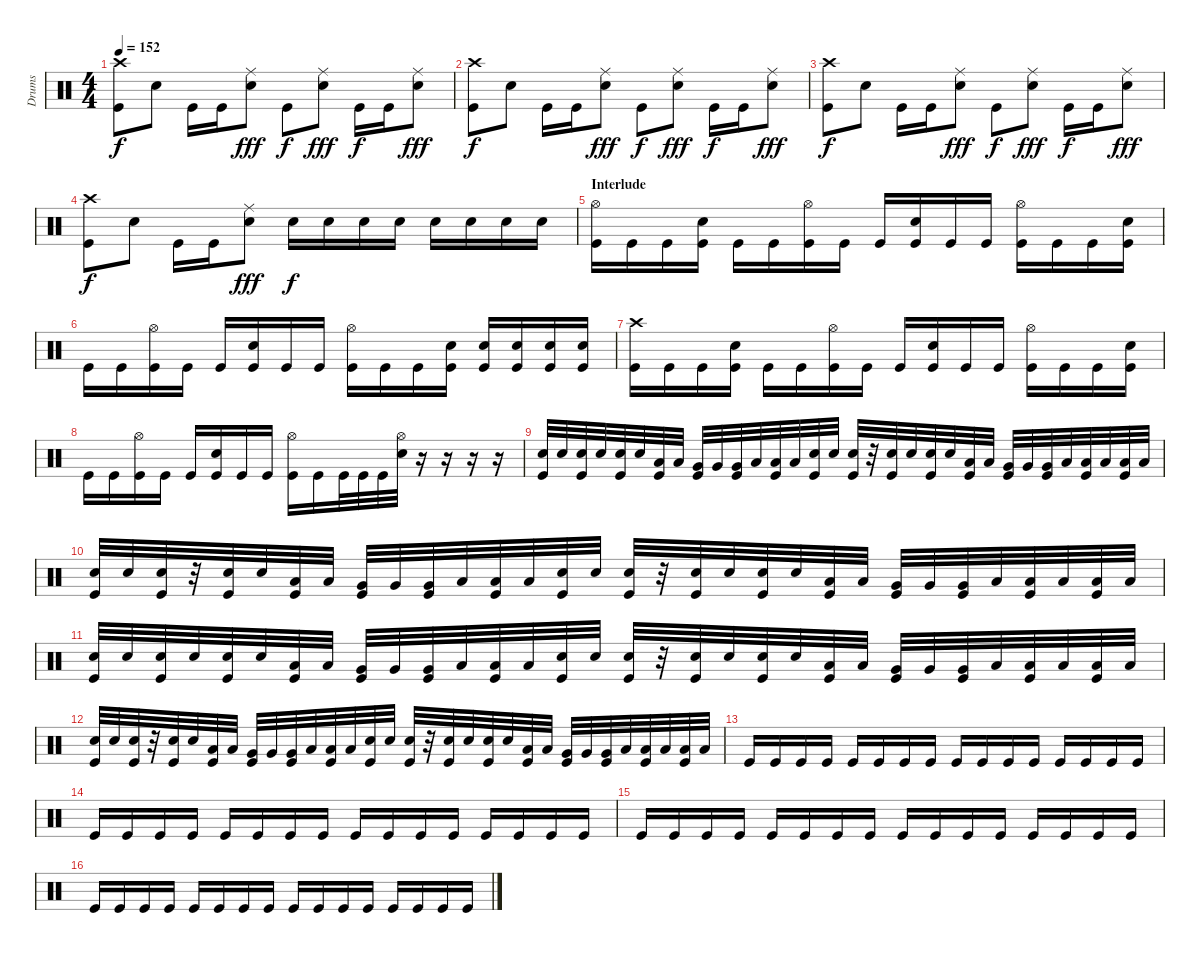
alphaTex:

\track ("Drums" "Drums") {instrument percussion}
\staff {score}
\articulation defaults
\ts (4 4)
\tempo 152
\clef neutral
\ks c
("Crash high (hit)" "Kick (hit)").8{dy f} "Snare (hit) 2".8 "Kick (hit)".16 "Kick (hit)".16 ("Ride (middle)" "Snare (hit) 2").8{dy fff} "Kick (hit)".8{dy f} ("Ride (middle)" "Snare (hit) 2").8{dy fff} "Kick (hit)".16{dy f} "Kick (hit)".16 ("Ride (middle)" "Snare (hit) 2").8{dy fff} |
("Crash high (hit)" "Kick (hit)").8{dy f} "Snare (hit) 2".8 "Kick (hit)".16 "Kick (hit)".16 ("Ride (middle)" "Snare (hit) 2").8{dy fff} "Kick (hit)".8{dy f} ("Ride (middle)" "Snare (hit) 2").8{dy fff} "Kick (hit)".16{dy f} "Kick (hit)".16 ("Ride (middle)" "Snare (hit) 2").8{dy fff} |
("Crash high (hit)" "Kick (hit)").8{dy f} "Snare (hit) 2".8 "Kick (hit)".16 "Kick (hit)".16 ("Ride (middle)" "Snare (hit) 2").8{dy fff} "Kick (hit)".8{dy f} ("Ride (middle)" "Snare (hit) 2").8{dy fff} "Kick (hit)".16{dy f} "Kick (hit)".16 ("Ride (middle)" "Snare (hit) 2").8{dy fff} |
("Crash high (hit)" "Kick (hit)").8{dy f} "Snare (hit) 2".8 "Kick (hit)".16 "Kick (hit)".16 ("Ride (middle)" "Snare (hit) 2").8{dy fff} "Snare (hit) 2".16{dy f} "Snare (hit) 2".16 "Snare (hit) 2".16 "Snare (hit) 2".16 "Snare (hit) 2".16 "Snare (hit) 2".16 "Snare (hit) 2".16 "Snare (hit) 2".16 |
\section ("" "Interlude")
("Hi-Hat (open)" "Kick (hit)").16 "Kick (hit)".16 "Kick (hit)".16 ("Snare (hit) 2" "Kick (hit)").16 "Kick (hit)".16 "Kick (hit)".16 ("Hi-Hat (open)" "Kick (hit)").16 "Kick (hit)".16 "Kick (hit)".16 ("Snare (hit) 2" "Kick (hit)").16 "Kick (hit)".16 "Kick (hit)".16 ("Hi-Hat (open)" "Kick (hit)").16 "Kick (hit)".16 "Kick (hit)".16 ("Snare (hit) 2" "Kick (hit)").16 |
"Kick (hit)".16 "Kick (hit)".16 ("Hi-Hat (open)" "Kick (hit)").16 "Kick (hit)".16 "Kick (hit)".16 ("Snare (hit) 2" "Kick (hit)").16 "Kick (hit)".16 "Kick (hit)".16 ("Hi-Hat (open)" "Kick (hit)").16 "Kick (hit)".16 "Kick (hit)".16 ("Snare (hit) 2" "Kick (hit)").16 ("Snare (hit) 2" "Kick (hit)").16 ("Snare (hit) 2" "Kick (hit)").16 ("Snare (hit) 2" "Kick (hit)").16 ("Snare (hit) 2" "Kick (hit)").16 |
("Crash high (hit)" "Kick (hit)").16 "Kick (hit)".16 "Kick (hit)".16 ("Snare (hit) 2" "Kick (hit)").16 "Kick (hit)".16 "Kick (hit)".16 ("Hi-Hat (open)" "Kick (hit)").16 "Kick (hit)".16 "Kick (hit)".16 ("Snare (hit) 2" "Kick (hit)").16 "Kick (hit)".16 "Kick (hit)".16 ("Hi-Hat (open)" "Kick (hit)").16 "Kick (hit)".16 "Kick (hit)".16 ("Snare (hit) 2" "Kick (hit)").16 |
"Kick (hit)".16 "Kick (hit)".16 ("Hi-Hat (open)" "Kick (hit)").16 "Kick (hit)".16 "Kick (hit)".16 ("Snare (hit) 2" "Kick (hit)").16 "Kick (hit)".16 "Kick (hit)".16 ("Hi-Hat (open)" "Kick (hit)").16 "Kick (hit)".16 "Kick (hit)".32 "Kick (hit)".32 "Kick (hit)".32 ("Hi-Hat (open)" "Snare (hit) 2").32 r.16 r.16 r.16 r.16 |
("Snare (hit) 2" "Kick (hit)").32 "Snare (hit) 2".32 ("Snare (hit) 2" "Kick (hit)").32 "Snare (hit) 2".32 ("Snare (hit) 2" "Kick (hit)").32 "Snare (hit) 2".32 ("Low Tom (hit)" "Kick (hit)").32 "Low Tom (hit)".32 ("Very Low Tom (hit)" "Kick (hit)").32 "Very Low Tom (hit)".32 ("Very Low Tom (hit)" "Kick (hit)").32 "Low Floor Tom (hit)".32 ("Low Floor Tom (hit)" "Kick (hit)").32 "Low Floor Tom (hit)".32 ("Snare (hit) 2" "Kick (hit)").32 "Snare (hit) 2".32 ("Snare (hit) 2" "Kick (hit)").32 r.32 ("Snare (hit) 2" "Kick (hit)").32 "Snare (hit) 2".32 ("Snare (hit) 2" "Kick (hit)").32 "Snare (hit) 2".32 ("Low Tom (hit)" "Kick (hit)").32 "Low Tom (hit)".32 ("Very Low Tom (hit)" "Kick (hit)").32 "Very Low Tom (hit)".32 ("Very Low Tom (hit)" "Kick (hit)").32 "Low Floor Tom (hit)".32 ("Low Floor Tom (hit)" "Kick (hit)").32 "Low Floor Tom (hit)".32 ("Low Floor Tom (hit)" "Kick (hit)").32 "Low Floor Tom (hit)".32 |
("Snare (hit) 2" "Kick (hit)").32 "Snare (hit) 2".32 ("Snare (hit) 2" "Kick (hit)").32 r.32 ("Snare (hit) 2" "Kick (hit)").32 "Snare (hit) 2".32 ("Low Tom (hit)" "Kick (hit)").32 "Low Tom (hit)".32 ("Very Low Tom (hit)" "Kick (hit)").32 "Very Low Tom (hit)".32 ("Very Low Tom (hit)" "Kick (hit)").32 "Low Floor Tom (hit)".32 ("Low Floor Tom (hit)" "Kick (hit)").32 "Low Floor Tom (hit)".32 ("Snare (hit) 2" "Kick (hit)").32 "Snare (hit) 2".32 ("Snare (hit) 2" "Kick (hit)").32 r.32 ("Snare (hit) 2" "Kick (hit)").32 "Snare (hit) 2".32 ("Snare (hit) 2" "Kick (hit)").32 "Snare (hit) 2".32 ("Low Tom (hit)" "Kick (hit)").32 "Low Tom (hit)".32 ("Very Low Tom (hit)" "Kick (hit)").32 "Very Low Tom (hit)".32 ("Very Low Tom (hit)" "Kick (hit)").32 "Low Floor Tom (hit)".32 ("Low Floor Tom (hit)" "Kick (hit)").32 "Low Floor Tom (hit)".32 ("Low Floor Tom (hit)" "Kick (hit)").32 "Low Floor Tom (hit)".32 |
("Snare (hit) 2" "Kick (hit)").32 "Snare (hit) 2".32 ("Snare (hit) 2" "Kick (hit)").32 "Snare (hit) 2".32 ("Snare (hit) 2" "Kick (hit)").32 "Snare (hit) 2".32 ("Low Tom (hit)" "Kick (hit)").32 "Low Tom (hit)".32 ("Very Low Tom (hit)" "Kick (hit)").32 "Very Low Tom (hit)".32 ("Very Low Tom (hit)" "Kick (hit)").32 "Low Floor Tom (hit)".32 ("Low Floor Tom (hit)" "Kick (hit)").32 "Low Floor Tom (hit)".32 ("Snare (hit) 2" "Kick (hit)").32 "Snare (hit) 2".32 ("Snare (hit) 2" "Kick (hit)").32 r.32 ("Snare (hit) 2" "Kick (hit)").32 "Snare (hit) 2".32 ("Snare (hit) 2" "Kick (hit)").32 "Snare (hit) 2".32 ("Low Tom (hit)" "Kick (hit)").32 "Low Tom (hit)".32 ("Very Low Tom (hit)" "Kick (hit)").32 "Very Low Tom (hit)".32 ("Very Low Tom (hit)" "Kick (hit)").32 "Low Floor Tom (hit)".32 ("Low Floor Tom (hit)" "Kick (hit)").32 "Low Floor Tom (hit)".32 ("Low Floor Tom (hit)" "Kick (hit)").32 "Low Floor Tom (hit)".32 |
("Snare (hit) 2" "Kick (hit)").32 "Snare (hit) 2".32 ("Snare (hit) 2" "Kick (hit)").32 r.32 ("Snare (hit) 2" "Kick (hit)").32 "Snare (hit) 2".32 ("Low Tom (hit)" "Kick (hit)").32 "Low Tom (hit)".32 ("Very Low Tom (hit)" "Kick (hit)").32 "Very Low Tom (hit)".32 ("Very Low Tom (hit)" "Kick (hit)").32 "Low Floor Tom (hit)".32 ("Low Floor Tom (hit)" "Kick (hit)").32 "Low Floor Tom (hit)".32 ("Snare (hit) 2" "Kick (hit)").32 "Snare (hit) 2".32 ("Snare (hit) 2" "Kick (hit)").32 r.32 ("Snare (hit) 2" "Kick (hit)").32 "Snare (hit) 2".32 ("Snare (hit) 2" "Kick (hit)").32 "Snare (hit) 2".32 ("Low Tom (hit)" "Kick (hit)").32 "Low Tom (hit)".32 ("Very Low Tom (hit)" "Kick (hit)").32 "Very Low Tom (hit)".32 ("Very Low Tom (hit)" "Kick (hit)").32 "Low Floor Tom (hit)".32 ("Low Floor Tom (hit)" "Kick (hit)").32 "Low Floor Tom (hit)".32 ("Low Floor Tom (hit)" "Kick (hit)").32 "Low Floor Tom (hit)".32 |
"Kick (hit)".16 "Kick (hit)".16 "Kick (hit)".16 "Kick (hit)".16 "Kick (hit)".16 "Kick (hit)".16 "Kick (hit)".16 "Kick (hit)".16 "Kick (hit)".16 "Kick (hit)".16 "Kick (hit)".16 "Kick (hit)".16 "Kick (hit)".16 "Kick (hit)".16 "Kick (hit)".16 "Kick (hit)".16 |
"Kick (hit)".16 "Kick (hit)".16 "Kick (hit)".16 "Kick (hit)".16 "Kick (hit)".16 "Kick (hit)".16 "Kick (hit)".16 "Kick (hit)".16 "Kick (hit)".16 "Kick (hit)".16 "Kick (hit)".16 "Kick (hit)".16 "Kick (hit)".16 "Kick (hit)".16 "Kick (hit)".16 "Kick (hit)".16 |
"Kick (hit)".16 "Kick (hit)".16 "Kick (hit)".16 "Kick (hit)".16 "Kick (hit)".16 "Kick (hit)".16 "Kick (hit)".16 "Kick (hit)".16 "Kick (hit)".16 "Kick (hit)".16 "Kick (hit)".16 "Kick (hit)".16 "Kick (hit)".16 "Kick (hit)".16 "Kick (hit)".16 "Kick (hit)".16 |
"Kick (hit)".16 "Kick (hit)".16 "Kick (hit)".16 "Kick (hit)".16 "Kick (hit)".16 "Kick (hit)".16 "Kick (hit)".16 "Kick (hit)".16 "Kick (hit)".16 "Kick (hit)".16 "Kick (hit)".16 "Kick (hit)".16 "Kick (hit)".16 "Kick (hit)".16 "Kick (hit)".16 "Kick (hit)".16
